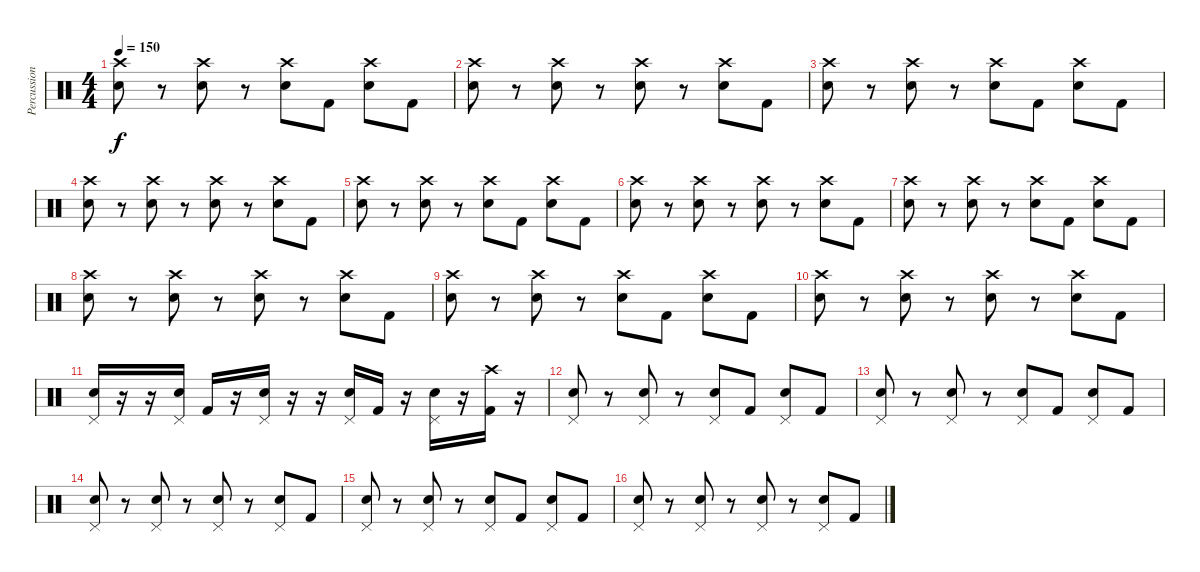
\track ("Percussion" "Percussion") {instrument percussion}
\staff {score}
\articulation defaults
\ts (4 4)
\tempo 150
\clef neutral
\ks c
("Crash high (hit)" "Electric Snare (hit)").8{dy f} r.8 ("Crash high (hit)" "Electric Snare (hit)").8 r.8 ("Crash high (hit)" "Electric Snare (hit)").8 "Kick (hit) 2".8 ("Crash high (hit)" "Electric Snare (hit)").8 "Kick (hit) 2".8 |
("Crash high (hit)" "Electric Snare (hit)").8 r.8 ("Crash high (hit)" "Electric Snare (hit)").8 r.8 ("Crash high (hit)" "Electric Snare (hit)").8 r.8 ("Crash high (hit)" "Electric Snare (hit)").8 "Kick (hit) 2".8 |
("Crash high (hit)" "Electric Snare (hit)").8 r.8 ("Crash high (hit)" "Electric Snare (hit)").8 r.8 ("Crash high (hit)" "Electric Snare (hit)").8 "Kick (hit) 2".8 ("Crash high (hit)" "Electric Snare (hit)").8 "Kick (hit) 2".8 |
("Crash high (hit)" "Electric Snare (hit)").8 r.8 ("Crash high (hit)" "Electric Snare (hit)").8 r.8 ("Crash high (hit)" "Electric Snare (hit)").8 r.8 ("Crash high (hit)" "Electric Snare (hit)").8 "Kick (hit) 2".8 |
("Crash high (hit)" "Electric Snare (hit)").8 r.8 ("Crash high (hit)" "Electric Snare (hit)").8 r.8 ("Crash high (hit)" "Electric Snare (hit)").8 "Kick (hit) 2".8 ("Crash high (hit)" "Electric Snare (hit)").8 "Kick (hit) 2".8 |
("Crash high (hit)" "Electric Snare (hit)").8 r.8 ("Crash high (hit)" "Electric Snare (hit)").8 r.8 ("Crash high (hit)" "Electric Snare (hit)").8 r.8 ("Crash high (hit)" "Electric Snare (hit)").8 "Kick (hit) 2".8 |
("Crash high (hit)" "Electric Snare (hit)").8 r.8 ("Crash high (hit)" "Electric Snare (hit)").8 r.8 ("Crash high (hit)" "Electric Snare (hit)").8 "Kick (hit) 2".8 ("Crash high (hit)" "Electric Snare (hit)").8 "Kick (hit) 2".8 |
("Crash high (hit)" "Electric Snare (hit)").8 r.8 ("Crash high (hit)" "Electric Snare (hit)").8 r.8 ("Crash high (hit)" "Electric Snare (hit)").8 r.8 ("Crash high (hit)" "Electric Snare (hit)").8 "Kick (hit) 2".8 |
("Crash high (hit)" "Electric Snare (hit)").8 r.8 ("Crash high (hit)" "Electric Snare (hit)").8 r.8 ("Crash high (hit)" "Electric Snare (hit)").8 "Kick (hit) 2".8 ("Crash high (hit)" "Electric Snare (hit)").8 "Kick (hit) 2".8 |
("Crash high (hit)" "Electric Snare (hit)").8 r.8 ("Crash high (hit)" "Electric Snare (hit)").8 r.8 ("Crash high (hit)" "Electric Snare (hit)").8 r.8 ("Crash high (hit)" "Electric Snare (hit)").8 "Kick (hit) 2".8 |
("Pedal Hi-Hat (hit)" "Electric Snare (hit)").16 r.16 r.16 ("Pedal Hi-Hat (hit)" "Electric Snare (hit)").16 "Kick (hit) 2".16 r.16 ("Pedal Hi-Hat (hit)" "Electric Snare (hit)").16 r.16 r.16 ("Pedal Hi-Hat (hit)" "Electric Snare (hit)").16 "Kick (hit) 2".16 r.16 ("Pedal Hi-Hat (hit)" "Electric Snare (hit)").16 r.16 ("Crash high (hit)" "Kick (hit) 2").16 r.16 |
("Pedal Hi-Hat (hit)" "Electric Snare (hit)").8 r.8 ("Pedal Hi-Hat (hit)" "Electric Snare (hit)").8 r.8 ("Pedal Hi-Hat (hit)" "Electric Snare (hit)").8 "Kick (hit) 2".8 ("Pedal Hi-Hat (hit)" "Electric Snare (hit)").8 "Kick (hit) 2".8 |
("Pedal Hi-Hat (hit)" "Electric Snare (hit)").8 r.8 ("Pedal Hi-Hat (hit)" "Electric Snare (hit)").8 r.8 ("Pedal Hi-Hat (hit)" "Electric Snare (hit)").8 "Kick (hit) 2".8 ("Pedal Hi-Hat (hit)" "Electric Snare (hit)").8 "Kick (hit) 2".8 |
("Pedal Hi-Hat (hit)" "Electric Snare (hit)").8 r.8 ("Pedal Hi-Hat (hit)" "Electric Snare (hit)").8 r.8 ("Pedal Hi-Hat (hit)" "Electric Snare (hit)").8 r.8 ("Pedal Hi-Hat (hit)" "Electric Snare (hit)").8 "Kick (hit) 2".8 |
("Pedal Hi-Hat (hit)" "Electric Snare (hit)").8 r.8 ("Pedal Hi-Hat (hit)" "Electric Snare (hit)").8 r.8 ("Pedal Hi-Hat (hit)" "Electric Snare (hit)").8 "Kick (hit) 2".8 ("Pedal Hi-Hat (hit)" "Electric Snare (hit)").8 "Kick (hit) 2".8 |
("Pedal Hi-Hat (hit)" "Electric Snare (hit)").8 r.8 ("Pedal Hi-Hat (hit)" "Electric Snare (hit)").8 r.8 ("Pedal Hi-Hat (hit)" "Electric Snare (hit)").8 r.8 ("Pedal Hi-Hat (hit)" "Electric Snare (hit)").8 "Kick (hit) 2".8
